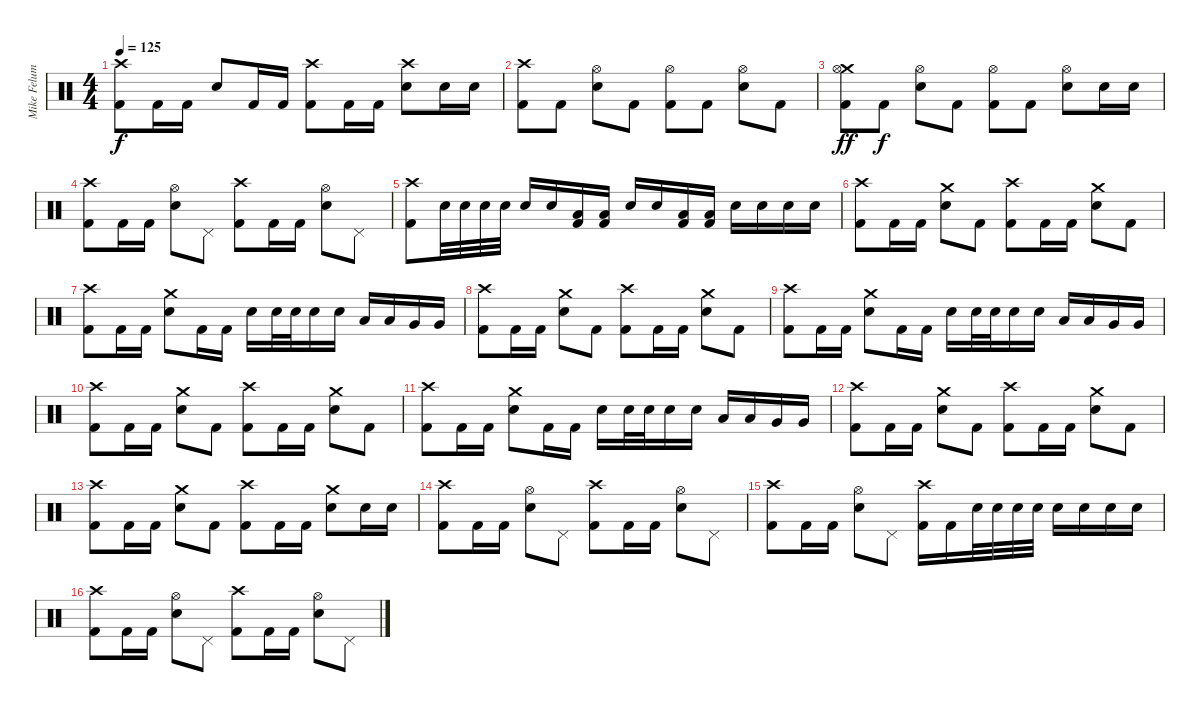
\track ("Mike Felumlee" "Mike Felum") {instrument percussion}
\staff {score}
\articulation defaults
\ts (4 4)
\tempo 125
\clef neutral
\ks c
("Crash high (hit)" "Kick (hit) 2").8{dy f} "Kick (hit) 2".16 "Kick (hit) 2".16 "Electric Snare (hit)".8 "Kick (hit) 2".16 "Kick (hit) 2".16 ("Crash high (hit)" "Kick (hit) 2").8 "Kick (hit) 2".16 "Kick (hit) 2".16 ("Crash high (hit)" "Electric Snare (hit)").8 "Electric Snare (hit)".16 "Electric Snare (hit)".16 |
("Crash high (hit)" "Kick (hit) 2").8 "Kick (hit) 2".8 ("Hi-Hat (open)" "Electric Snare (hit)").8 "Kick (hit) 2".8 ("Hi-Hat (open)" "Kick (hit) 2").8 "Kick (hit) 2".8 ("Hi-Hat (open)" "Electric Snare (hit)").8 "Kick (hit) 2".8 |
("Crash medium (hit)" "Hi-Hat (open)" "Kick (hit) 2").8{dy ff} "Kick (hit) 2".8{dy f} ("Hi-Hat (open)" "Electric Snare (hit)").8 "Kick (hit) 2".8 ("Hi-Hat (open)" "Kick (hit) 2").8 "Kick (hit) 2".8 ("Hi-Hat (open)" "Electric Snare (hit)").8 "Electric Snare (hit)".16 "Electric Snare (hit)".16 |
("Crash high (hit)" "Kick (hit) 2").8 "Kick (hit) 2".16 "Kick (hit) 2".16 ("Hi-Hat (open)" "Electric Snare (hit)").8 "Pedal Hi-Hat (hit)".8 ("Crash high (hit)" "Kick (hit) 2").8 "Kick (hit) 2".16 "Kick (hit) 2".16 ("Hi-Hat (open)" "Electric Snare (hit)").8 "Pedal Hi-Hat (hit)".8 |
("Crash high (hit)" "Kick (hit) 2").8 "Electric Snare (hit)".32 "Electric Snare (hit)".32 "Electric Snare (hit)".32 "Electric Snare (hit)".32 "Electric Snare (hit)".16 "Electric Snare (hit)".16 ("Low Tom (hit)" "Kick (hit) 2").16 ("Low Tom (hit)" "Kick (hit) 2").16 "Electric Snare (hit)".16 "Electric Snare (hit)".16 ("Low Tom (hit)" "Kick (hit) 2").16 ("Low Tom (hit)" "Kick (hit) 2").16 "Electric Snare (hit)".16 "Electric Snare (hit)".16 "Electric Snare (hit)".16 "Electric Snare (hit)".16 |
("Crash high (hit)" "Kick (hit) 2").8 "Kick (hit) 2".16 "Kick (hit) 2".16 ("Crash medium (hit)" "Electric Snare (hit)").8 "Kick (hit) 2".8 ("Crash high (hit)" "Kick (hit) 2").8 "Kick (hit) 2".16 "Kick (hit) 2".16 ("Crash medium (hit)" "Electric Snare (hit)").8 "Kick (hit) 2".8 |
("Crash high (hit)" "Kick (hit) 2").8 "Kick (hit) 2".16 "Kick (hit) 2".16 ("Crash medium (hit)" "Electric Snare (hit)").8 "Kick (hit) 2".16 "Kick (hit) 2".16 "Electric Snare (hit)".16 "Electric Snare (hit)".32 "Electric Snare (hit)".32 "Electric Snare (hit)".16 "Electric Snare (hit)".16 "Low Tom (hit)".16 "Low Tom (hit)".16 "Very Low Tom (hit)".16 "Very Low Tom (hit)".16 |
("Crash high (hit)" "Kick (hit) 2").8 "Kick (hit) 2".16 "Kick (hit) 2".16 ("Crash medium (hit)" "Electric Snare (hit)").8 "Kick (hit) 2".8 ("Crash high (hit)" "Kick (hit) 2").8 "Kick (hit) 2".16 "Kick (hit) 2".16 ("Crash medium (hit)" "Electric Snare (hit)").8 "Kick (hit) 2".8 |
("Crash high (hit)" "Kick (hit) 2").8 "Kick (hit) 2".16 "Kick (hit) 2".16 ("Crash medium (hit)" "Electric Snare (hit)").8 "Kick (hit) 2".16 "Kick (hit) 2".16 "Electric Snare (hit)".16 "Electric Snare (hit)".32 "Electric Snare (hit)".32 "Electric Snare (hit)".16 "Electric Snare (hit)".16 "Low Tom (hit)".16 "Low Tom (hit)".16 "Very Low Tom (hit)".16 "Very Low Tom (hit)".16 |
("Crash high (hit)" "Kick (hit) 2").8 "Kick (hit) 2".16 "Kick (hit) 2".16 ("Crash medium (hit)" "Electric Snare (hit)").8 "Kick (hit) 2".8 ("Crash high (hit)" "Kick (hit) 2").8 "Kick (hit) 2".16 "Kick (hit) 2".16 ("Crash medium (hit)" "Electric Snare (hit)").8 "Kick (hit) 2".8 |
("Crash high (hit)" "Kick (hit) 2").8 "Kick (hit) 2".16 "Kick (hit) 2".16 ("Crash medium (hit)" "Electric Snare (hit)").8 "Kick (hit) 2".16 "Kick (hit) 2".16 "Electric Snare (hit)".16 "Electric Snare (hit)".32 "Electric Snare (hit)".32 "Electric Snare (hit)".16 "Electric Snare (hit)".16 "Low Tom (hit)".16 "Low Tom (hit)".16 "Very Low Tom (hit)".16 "Very Low Tom (hit)".16 |
("Crash high (hit)" "Kick (hit) 2").8 "Kick (hit) 2".16 "Kick (hit) 2".16 ("Crash medium (hit)" "Electric Snare (hit)").8 "Kick (hit) 2".8 ("Crash high (hit)" "Kick (hit) 2").8 "Kick (hit) 2".16 "Kick (hit) 2".16 ("Crash medium (hit)" "Electric Snare (hit)").8 "Kick (hit) 2".8 |
("Crash high (hit)" "Kick (hit) 2").8 "Kick (hit) 2".16 "Kick (hit) 2".16 ("Crash medium (hit)" "Electric Snare (hit)").8 "Kick (hit) 2".8 ("Crash high (hit)" "Kick (hit) 2").8 "Kick (hit) 2".16 "Kick (hit) 2".16 ("Crash medium (hit)" "Electric Snare (hit)").8 "Electric Snare (hit)".16 "Electric Snare (hit)".16 |
("Crash high (hit)" "Kick (hit) 2").8 "Kick (hit) 2".16 "Kick (hit) 2".16 ("Hi-Hat (open)" "Electric Snare (hit)").8 "Pedal Hi-Hat (hit)".8 ("Crash high (hit)" "Kick (hit) 2").8 "Kick (hit) 2".16 "Kick (hit) 2".16 ("Hi-Hat (open)" "Electric Snare (hit)").8 "Pedal Hi-Hat (hit)".8 |
("Crash high (hit)" "Kick (hit) 2").8 "Kick (hit) 2".16 "Kick (hit) 2".16 ("Hi-Hat (open)" "Electric Snare (hit)").8 "Pedal Hi-Hat (hit)".8 ("Crash high (hit)" "Kick (hit) 2").16 "Kick (hit) 2".16 "Electric Snare (hit)".32 "Electric Snare (hit)".32 "Electric Snare (hit)".32 "Electric Snare (hit)".32 "Electric Snare (hit)".16 "Electric Snare (hit)".16 "Electric Snare (hit)".16 "Electric Snare (hit)".16 |
("Crash high (hit)" "Kick (hit) 2").8 "Kick (hit) 2".16 "Kick (hit) 2".16 ("Hi-Hat (open)" "Electric Snare (hit)").8 "Pedal Hi-Hat (hit)".8 ("Crash high (hit)" "Kick (hit) 2").8 "Kick (hit) 2".16 "Kick (hit) 2".16 ("Hi-Hat (open)" "Electric Snare (hit)").8 "Pedal Hi-Hat (hit)".8
